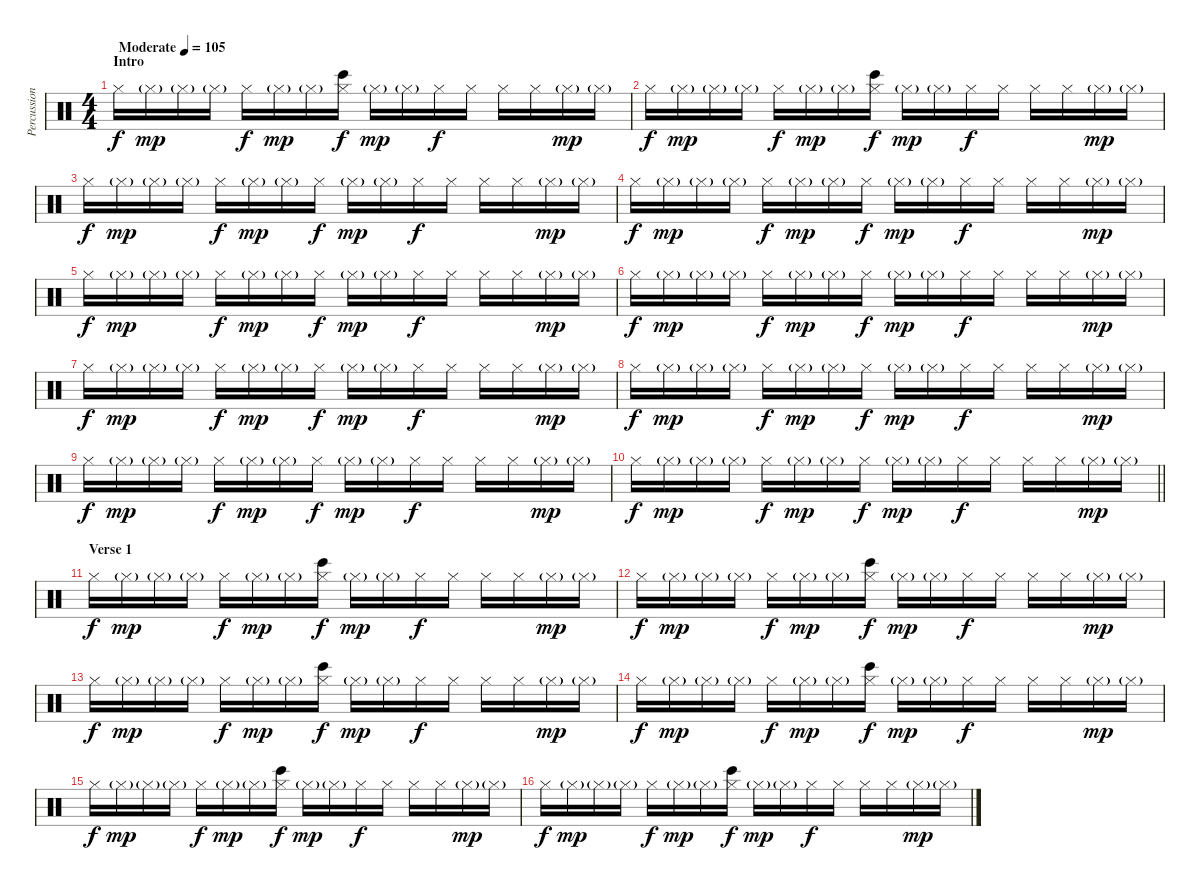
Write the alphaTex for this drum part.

\track ("Percussions and Arrangements" "Percussion") {instrument percussion}
\staff {score}
\articulation defaults
\ts (4 4)
\section ("" "Intro")
\tempo (105 "Moderate")
\clef neutral
\ks c "Hi-Hat (closed)".16{dy f} "Hi-Hat (closed)"{g}.16{dy mp} "Hi-Hat (closed)"{g}.16 "Hi-Hat (closed)"{g}.16 "Hi-Hat (closed)".16{dy f} "Hi-Hat (closed)"{g}.16{dy mp} "Hi-Hat (closed)"{g}.16
("Hi-Hat (closed)" "Bongo High (hit)").16{dy f} "Hi-Hat (closed)"{g}.16{dy mp} "Hi-Hat (closed)"{g}.16 "Hi-Hat (closed)".16{dy f} "Hi-Hat (closed)".16 "Hi-Hat (closed)".16 "Hi-Hat (closed)".16 "Hi-Hat (closed)"{g}.16{dy mp} "Hi-Hat (closed)"{g}.16 |
"Hi-Hat (closed)".16{dy f} "Hi-Hat (closed)"{g}.16{dy mp} "Hi-Hat (closed)"{g}.16 "Hi-Hat (closed)"{g}.16 "Hi-Hat (closed)".16{dy f} "Hi-Hat (closed)"{g}.16{dy mp} "Hi-Hat (closed)"{g}.16 ("Hi-Hat (closed)" "Bongo High (hit)").16{dy f} "Hi-Hat (closed)"{g}.16{dy mp} "Hi-Hat (closed)"{g}.16 "Hi-Hat (closed)".16{dy f} "Hi-Hat (closed)".16 "Hi-Hat (closed)".16 "Hi-Hat (closed)".16 "Hi-Hat (closed)"{g}.16{dy mp} "Hi-Hat (closed)"{g}.16 |
"Hi-Hat (closed)".16{dy f} "Hi-Hat (closed)"{g}.16{dy mp} "Hi-Hat (closed)"{g}.16 "Hi-Hat (closed)"{g}.16 "Hi-Hat (closed)".16{dy f} "Hi-Hat (closed)"{g}.16{dy mp} "Hi-Hat (closed)"{g}.16 "Hi-Hat (closed)".16{dy f} "Hi-Hat (closed)"{g}.16{dy mp} "Hi-Hat (closed)"{g}.16 "Hi-Hat (closed)".16{dy f} "Hi-Hat (closed)".16 "Hi-Hat (closed)".16 "Hi-Hat (closed)".16 "Hi-Hat (closed)"{g}.16{dy mp} "Hi-Hat (closed)"{g}.16 |
"Hi-Hat (closed)".16{dy f} "Hi-Hat (closed)"{g}.16{dy mp} "Hi-Hat (closed)"{g}.16 "Hi-Hat (closed)"{g}.16 "Hi-Hat (closed)".16{dy f} "Hi-Hat (closed)"{g}.16{dy mp} "Hi-Hat (closed)"{g}.16 "Hi-Hat (closed)".16{dy f} "Hi-Hat (closed)"{g}.16{dy mp} "Hi-Hat (closed)"{g}.16 "Hi-Hat (closed)".16{dy f} "Hi-Hat (closed)".16 "Hi-Hat (closed)".16 "Hi-Hat (closed)".16 "Hi-Hat (closed)"{g}.16{dy mp} "Hi-Hat (closed)"{g}.16 |
"Hi-Hat (closed)".16{dy f} "Hi-Hat (closed)"{g}.16{dy mp} "Hi-Hat (closed)"{g}.16 "Hi-Hat (closed)"{g}.16 "Hi-Hat (closed)".16{dy f} "Hi-Hat (closed)"{g}.16{dy mp} "Hi-Hat (closed)"{g}.16 "Hi-Hat (closed)".16{dy f} "Hi-Hat (closed)"{g}.16{dy mp} "Hi-Hat (closed)"{g}.16 "Hi-Hat (closed)".16{dy f} "Hi-Hat (closed)".16 "Hi-Hat (closed)".16 "Hi-Hat (closed)".16 "Hi-Hat (closed)"{g}.16{dy mp} "Hi-Hat (closed)"{g}.16 |
"Hi-Hat (closed)".16{dy f} "Hi-Hat (closed)"{g}.16{dy mp} "Hi-Hat (closed)"{g}.16 "Hi-Hat (closed)"{g}.16 "Hi-Hat (closed)".16{dy f} "Hi-Hat (closed)"{g}.16{dy mp} "Hi-Hat (closed)"{g}.16 "Hi-Hat (closed)".16{dy f} "Hi-Hat (closed)"{g}.16{dy mp} "Hi-Hat (closed)"{g}.16 "Hi-Hat (closed)".16{dy f} "Hi-Hat (closed)".16 "Hi-Hat (closed)".16 "Hi-Hat (closed)".16 "Hi-Hat (closed)"{g}.16{dy mp} "Hi-Hat (closed)"{g}.16 |
"Hi-Hat (closed)".16{dy f} "Hi-Hat (closed)"{g}.16{dy mp} "Hi-Hat (closed)"{g}.16 "Hi-Hat (closed)"{g}.16 "Hi-Hat (closed)".16{dy f} "Hi-Hat (closed)"{g}.16{dy mp} "Hi-Hat (closed)"{g}.16 "Hi-Hat (closed)".16{dy f} "Hi-Hat (closed)"{g}.16{dy mp} "Hi-Hat (closed)"{g}.16 "Hi-Hat (closed)".16{dy f} "Hi-Hat (closed)".16 "Hi-Hat (closed)".16 "Hi-Hat (closed)".16 "Hi-Hat (closed)"{g}.16{dy mp} "Hi-Hat (closed)"{g}.16 |
"Hi-Hat (closed)".16{dy f} "Hi-Hat (closed)"{g}.16{dy mp} "Hi-Hat (closed)"{g}.16 "Hi-Hat (closed)"{g}.16 "Hi-Hat (closed)".16{dy f} "Hi-Hat (closed)"{g}.16{dy mp} "Hi-Hat (closed)"{g}.16 "Hi-Hat (closed)".16{dy f} "Hi-Hat (closed)"{g}.16{dy mp} "Hi-Hat (closed)"{g}.16 "Hi-Hat (closed)".16{dy f} "Hi-Hat (closed)".16 "Hi-Hat (closed)".16 "Hi-Hat (closed)".16 "Hi-Hat (closed)"{g}.16{dy mp} "Hi-Hat (closed)"{g}.16 |
"Hi-Hat (closed)".16{dy f} "Hi-Hat (closed)"{g}.16{dy mp} "Hi-Hat (closed)"{g}.16 "Hi-Hat (closed)"{g}.16 "Hi-Hat (closed)".16{dy f} "Hi-Hat (closed)"{g}.16{dy mp} "Hi-Hat (closed)"{g}.16 "Hi-Hat (closed)".16{dy f} "Hi-Hat (closed)"{g}.16{dy mp} "Hi-Hat (closed)"{g}.16 "Hi-Hat (closed)".16{dy f} "Hi-Hat (closed)".16 "Hi-Hat (closed)".16 "Hi-Hat (closed)".16 "Hi-Hat (closed)"{g}.16{dy mp} "Hi-Hat (closed)"{g}.16 |
\barLineRight lightlight "Hi-Hat (closed)".16{dy f} "Hi-Hat (closed)"{g}.16{dy mp} "Hi-Hat (closed)"{g}.16 "Hi-Hat (closed)"{g}.16 "Hi-Hat (closed)".16{dy f} "Hi-Hat (closed)"{g}.16{dy mp} "Hi-Hat (closed)"{g}.16 "Hi-Hat (closed)".16{dy f} "Hi-Hat (closed)"{g}.16{dy mp} "Hi-Hat (closed)"{g}.16 "Hi-Hat (closed)".16{dy f} "Hi-Hat (closed)".16 "Hi-Hat (closed)".16 "Hi-Hat (closed)".16 "Hi-Hat (closed)"{g}.16{dy mp} "Hi-Hat (closed)"{g}.16
|
\section ("" "Verse 1")
"Hi-Hat (closed)".16{dy f} "Hi-Hat (closed)"{g}.16{dy mp} "Hi-Hat (closed)"{g}.16 "Hi-Hat (closed)"{g}.16 "Hi-Hat (closed)".16{dy f} "Hi-Hat (closed)"{g}.16{dy mp} "Hi-Hat (closed)"{g}.16 ("Hi-Hat (closed)" "Bongo High (hit)").16{dy f} "Hi-Hat (closed)"{g}.16{dy mp} "Hi-Hat (closed)"{g}.16 "Hi-Hat (closed)".16{dy f} "Hi-Hat (closed)".16 "Hi-Hat (closed)".16 "Hi-Hat (closed)".16 "Hi-Hat (closed)"{g}.16{dy mp} "Hi-Hat (closed)"{g}.16 |
"Hi-Hat (closed)".16{dy f} "Hi-Hat (closed)"{g}.16{dy mp} "Hi-Hat (closed)"{g}.16 "Hi-Hat (closed)"{g}.16 "Hi-Hat (closed)".16{dy f} "Hi-Hat (closed)"{g}.16{dy mp} "Hi-Hat (closed)"{g}.16 ("Hi-Hat (closed)" "Bongo High (hit)").16{dy f} "Hi-Hat (closed)"{g}.16{dy mp} "Hi-Hat (closed)"{g}.16 "Hi-Hat (closed)".16{dy f} "Hi-Hat (closed)".16 "Hi-Hat (closed)".16 "Hi-Hat (closed)".16 "Hi-Hat (closed)"{g}.16{dy mp} "Hi-Hat (closed)"{g}.16 |
"Hi-Hat (closed)".16{dy f} "Hi-Hat (closed)"{g}.16{dy mp} "Hi-Hat (closed)"{g}.16 "Hi-Hat (closed)"{g}.16 "Hi-Hat (closed)".16{dy f} "Hi-Hat (closed)"{g}.16{dy mp} "Hi-Hat (closed)"{g}.16 ("Hi-Hat (closed)" "Bongo High (hit)").16{dy f} "Hi-Hat (closed)"{g}.16{dy mp} "Hi-Hat (closed)"{g}.16 "Hi-Hat (closed)".16{dy f} "Hi-Hat (closed)".16 "Hi-Hat (closed)".16 "Hi-Hat (closed)".16 "Hi-Hat (closed)"{g}.16{dy mp} "Hi-Hat (closed)"{g}.16 |
"Hi-Hat (closed)".16{dy f} "Hi-Hat (closed)"{g}.16{dy mp} "Hi-Hat (closed)"{g}.16 "Hi-Hat (closed)"{g}.16 "Hi-Hat (closed)".16{dy f} "Hi-Hat (closed)"{g}.16{dy mp} "Hi-Hat (closed)"{g}.16 ("Hi-Hat (closed)" "Bongo High (hit)").16{dy f} "Hi-Hat (closed)"{g}.16{dy mp} "Hi-Hat (closed)"{g}.16 "Hi-Hat (closed)".16{dy f} "Hi-Hat (closed)".16 "Hi-Hat (closed)".16 "Hi-Hat (closed)".16 "Hi-Hat (closed)"{g}.16{dy mp} "Hi-Hat (closed)"{g}.16 |
"Hi-Hat (closed)".16{dy f} "Hi-Hat (closed)"{g}.16{dy mp} "Hi-Hat (closed)"{g}.16 "Hi-Hat (closed)"{g}.16 "Hi-Hat (closed)".16{dy f} "Hi-Hat (closed)"{g}.16{dy mp} "Hi-Hat (closed)"{g}.16 ("Hi-Hat (closed)" "Bongo High (hit)").16{dy f} "Hi-Hat (closed)"{g}.16{dy mp} "Hi-Hat (closed)"{g}.16 "Hi-Hat (closed)".16{dy f} "Hi-Hat (closed)".16 "Hi-Hat (closed)".16 "Hi-Hat (closed)".16 "Hi-Hat (closed)"{g}.16{dy mp} "Hi-Hat (closed)"{g}.16 |
"Hi-Hat (closed)".16{dy f} "Hi-Hat (closed)"{g}.16{dy mp} "Hi-Hat (closed)"{g}.16 "Hi-Hat (closed)"{g}.16 "Hi-Hat (closed)".16{dy f} "Hi-Hat (closed)"{g}.16{dy mp} "Hi-Hat (closed)"{g}.16 ("Hi-Hat (closed)" "Bongo High (hit)").16{dy f} "Hi-Hat (closed)"{g}.16{dy mp} "Hi-Hat (closed)"{g}.16 "Hi-Hat (closed)".16{dy f} "Hi-Hat (closed)".16 "Hi-Hat (closed)".16 "Hi-Hat (closed)".16 "Hi-Hat (closed)"{g}.16{dy mp} "Hi-Hat (closed)"{g}.16
